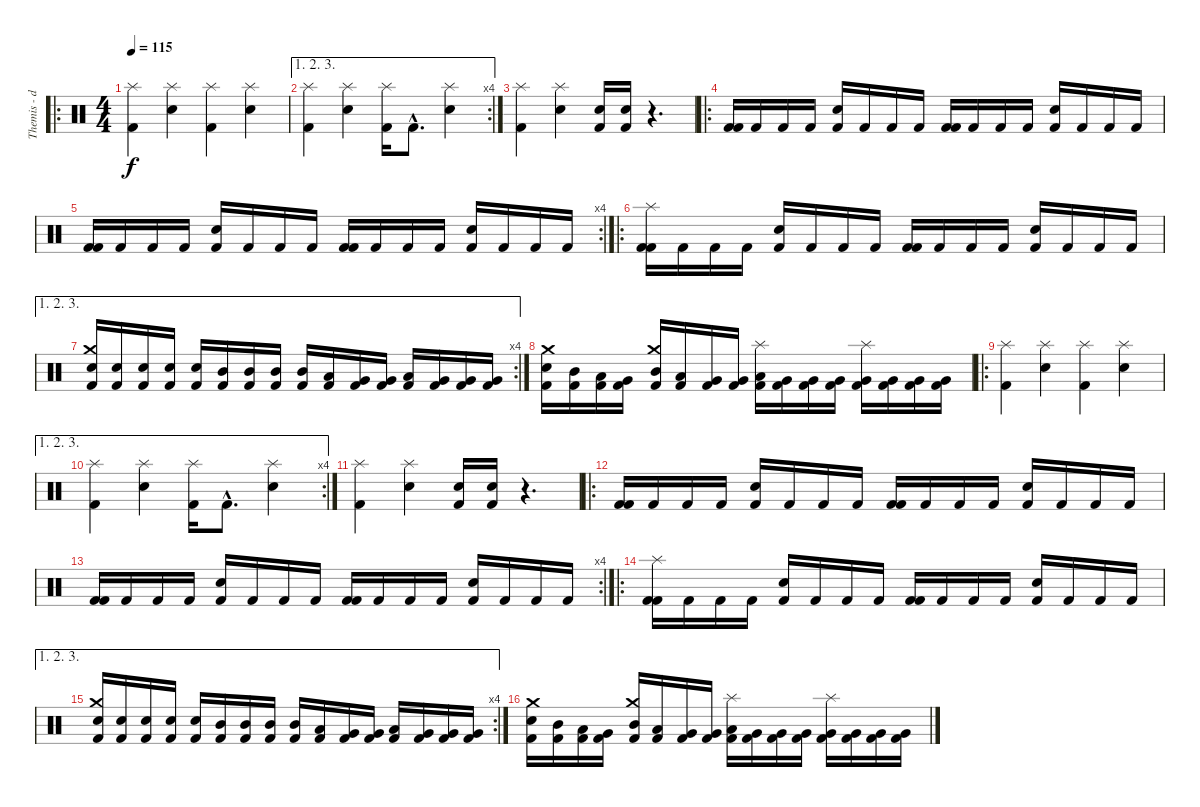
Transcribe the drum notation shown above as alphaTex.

\track ("Themis - drms" "Themis - d") {instrument percussion}
\staff {score}
\articulation defaults
\ro
\ts (4 4)
\tempo 115
\clef neutral
\ks c
("Splash (hit)" "Kick (hit) 2").4{dy f} ("Splash (hit)" "Electric Snare (hit)").4 ("Splash (hit)" "Kick (hit) 2").4 ("Splash (hit)" "Electric Snare (hit)").4 |
\ae (1 2 3)
\rc 4
("Splash (hit)" "Kick (hit) 2").4 ("Splash (hit)" "Electric Snare (hit)").4 ("Splash (hit)" "Kick (hit) 2").16 "Kick (hit) 2"{hac}.8{d} ("Splash (hit)" "Electric Snare (hit)").4 |
("Splash (hit)" "Kick (hit) 2").4 ("Splash (hit)" "Electric Snare (hit)").4 ("Electric Snare (hit)" "Kick (hit) 2").16 ("Electric Snare (hit)" "Kick (hit) 2").16 r.4{d} |
\ro
("Kick (hit) 2" "Kick (hit) 2").16 "Kick (hit) 2".16 "Kick (hit) 2".16 "Kick (hit) 2".16 ("Electric Snare (hit)" "Kick (hit) 2").16 "Kick (hit) 2".16 "Kick (hit) 2".16 "Kick (hit) 2".16 ("Kick (hit) 2" "Kick (hit) 2").16 "Kick (hit) 2".16 "Kick (hit) 2".16 "Kick (hit) 2".16 ("Electric Snare (hit)" "Kick (hit) 2").16 "Kick (hit) 2".16 "Kick (hit) 2".16 "Kick (hit) 2".16 |
\rc 4
("Kick (hit) 2" "Kick (hit) 2").16 "Kick (hit) 2".16 "Kick (hit) 2".16 "Kick (hit) 2".16 ("Electric Snare (hit)" "Kick (hit) 2").16 "Kick (hit) 2".16 "Kick (hit) 2".16 "Kick (hit) 2".16 ("Kick (hit) 2" "Kick (hit) 2").16 "Kick (hit) 2".16 "Kick (hit) 2".16 "Kick (hit) 2".16 ("Electric Snare (hit)" "Kick (hit) 2").16 "Kick (hit) 2".16 "Kick (hit) 2".16 "Kick (hit) 2".16 |
\ro
("Splash (hit)" "Kick (hit) 2" "Kick (hit) 2").16 "Kick (hit) 2".16 "Kick (hit) 2".16 "Kick (hit) 2".16 ("Electric Snare (hit)" "Kick (hit) 2").16 "Kick (hit) 2".16 "Kick (hit) 2".16 "Kick (hit) 2".16 ("Kick (hit) 2" "Kick (hit) 2").16 "Kick (hit) 2".16 "Kick (hit) 2".16 "Kick (hit) 2".16 ("Electric Snare (hit)" "Kick (hit) 2").16 "Kick (hit) 2".16 "Kick (hit) 2".16 "Kick (hit) 2".16 |
\ae (1 2 3)
\rc 4
("Crash medium (hit)" "Snare (hit) 2" "Kick (hit) 2").16 ("Snare (hit) 2" "Kick (hit) 2").16 ("Electric Snare (hit)" "Kick (hit) 2").16 ("Electric Snare (hit)" "Kick (hit) 2").16 ("Electric Snare (hit)" "Kick (hit) 2").16 ("Mid Tom (hit)" "Kick (hit) 2").16 ("Mid Tom (hit)" "Kick (hit) 2").16 ("Mid Tom (hit)" "Kick (hit) 2").16 ("Mid Tom (hit)" "Kick (hit) 2").16 ("Low Tom (hit)" "Kick (hit) 2").16 ("Very Low Tom (hit)" "Kick (hit) 2").16 ("Very Low Tom (hit)" "Kick (hit) 2").16 ("Low Tom (hit)" "Kick (hit) 2").16 ("Very Low Tom (hit)" "Kick (hit) 2").16 ("Very Low Tom (hit)" "Kick (hit) 2").16 ("Very Low Tom (hit)" "Kick (hit) 2").16 |
("Crash medium (hit)" "Electric Snare (hit)" "Kick (hit) 2").16 ("Mid Tom (hit)" "Kick (hit) 2").16 ("Low Tom (hit)" "Kick (hit) 2").16 ("Very Low Tom (hit)" "Kick (hit) 2").16 ("Crash medium (hit)" "Mid Tom (hit)" "Kick (hit) 2").16 ("Low Tom (hit)" "Kick (hit) 2").16 ("Very Low Tom (hit)" "Kick (hit) 2").16 ("Very Low Tom (hit)" "Kick (hit) 2").16 ("Splash (hit)" "Low Tom (hit)" "Kick (hit) 2").16 ("Very Low Tom (hit)" "Kick (hit) 2").16 ("Very Low Tom (hit)" "Kick (hit) 2").16 ("Very Low Tom (hit)" "Kick (hit) 2").16 ("Splash (hit)" "Very Low Tom (hit)" "Kick (hit) 2").16 ("Very Low Tom (hit)" "Kick (hit) 2").16 ("Very Low Tom (hit)" "Kick (hit) 2").16 ("Very Low Tom (hit)" "Kick (hit) 2").16 |
\ro
("Splash (hit)" "Kick (hit) 2").4 ("Splash (hit)" "Electric Snare (hit)").4 ("Splash (hit)" "Kick (hit) 2").4 ("Splash (hit)" "Electric Snare (hit)").4 |
\ae (1 2 3)
\rc 4
("Splash (hit)" "Kick (hit) 2").4 ("Splash (hit)" "Electric Snare (hit)").4 ("Splash (hit)" "Kick (hit) 2").16 "Kick (hit) 2"{hac}.8{d} ("Splash (hit)" "Electric Snare (hit)").4 |
("Splash (hit)" "Kick (hit) 2").4 ("Splash (hit)" "Electric Snare (hit)").4 ("Electric Snare (hit)" "Kick (hit) 2").16 ("Electric Snare (hit)" "Kick (hit) 2").16 r.4{d} |
\ro
("Kick (hit) 2" "Kick (hit) 2").16 "Kick (hit) 2".16 "Kick (hit) 2".16 "Kick (hit) 2".16 ("Electric Snare (hit)" "Kick (hit) 2").16 "Kick (hit) 2".16 "Kick (hit) 2".16 "Kick (hit) 2".16 ("Kick (hit) 2" "Kick (hit) 2").16 "Kick (hit) 2".16 "Kick (hit) 2".16 "Kick (hit) 2".16 ("Electric Snare (hit)" "Kick (hit) 2").16 "Kick (hit) 2".16 "Kick (hit) 2".16 "Kick (hit) 2".16 |
\rc 4
("Kick (hit) 2" "Kick (hit) 2").16 "Kick (hit) 2".16 "Kick (hit) 2".16 "Kick (hit) 2".16 ("Electric Snare (hit)" "Kick (hit) 2").16 "Kick (hit) 2".16 "Kick (hit) 2".16 "Kick (hit) 2".16 ("Kick (hit) 2" "Kick (hit) 2").16 "Kick (hit) 2".16 "Kick (hit) 2".16 "Kick (hit) 2".16 ("Electric Snare (hit)" "Kick (hit) 2").16 "Kick (hit) 2".16 "Kick (hit) 2".16 "Kick (hit) 2".16 |
\ro
("Splash (hit)" "Kick (hit) 2" "Kick (hit) 2").16 "Kick (hit) 2".16 "Kick (hit) 2".16 "Kick (hit) 2".16 ("Electric Snare (hit)" "Kick (hit) 2").16 "Kick (hit) 2".16 "Kick (hit) 2".16 "Kick (hit) 2".16 ("Kick (hit) 2" "Kick (hit) 2").16 "Kick (hit) 2".16 "Kick (hit) 2".16 "Kick (hit) 2".16 ("Electric Snare (hit)" "Kick (hit) 2").16 "Kick (hit) 2".16 "Kick (hit) 2".16 "Kick (hit) 2".16 |
\ae (1 2 3)
\rc 4
("Crash medium (hit)" "Snare (hit) 2" "Kick (hit) 2").16 ("Snare (hit) 2" "Kick (hit) 2").16 ("Electric Snare (hit)" "Kick (hit) 2").16 ("Electric Snare (hit)" "Kick (hit) 2").16 ("Electric Snare (hit)" "Kick (hit) 2").16 ("Mid Tom (hit)" "Kick (hit) 2").16 ("Mid Tom (hit)" "Kick (hit) 2").16 ("Mid Tom (hit)" "Kick (hit) 2").16 ("Mid Tom (hit)" "Kick (hit) 2").16 ("Low Tom (hit)" "Kick (hit) 2").16 ("Very Low Tom (hit)" "Kick (hit) 2").16 ("Very Low Tom (hit)" "Kick (hit) 2").16 ("Low Tom (hit)" "Kick (hit) 2").16 ("Very Low Tom (hit)" "Kick (hit) 2").16 ("Very Low Tom (hit)" "Kick (hit) 2").16 ("Very Low Tom (hit)" "Kick (hit) 2").16 |
("Crash medium (hit)" "Electric Snare (hit)" "Kick (hit) 2").16 ("Mid Tom (hit)" "Kick (hit) 2").16 ("Low Tom (hit)" "Kick (hit) 2").16 ("Very Low Tom (hit)" "Kick (hit) 2").16 ("Crash medium (hit)" "Mid Tom (hit)" "Kick (hit) 2").16 ("Low Tom (hit)" "Kick (hit) 2").16 ("Very Low Tom (hit)" "Kick (hit) 2").16 ("Very Low Tom (hit)" "Kick (hit) 2").16 ("Splash (hit)" "Low Tom (hit)" "Kick (hit) 2").16 ("Very Low Tom (hit)" "Kick (hit) 2").16 ("Very Low Tom (hit)" "Kick (hit) 2").16 ("Very Low Tom (hit)" "Kick (hit) 2").16 ("Splash (hit)" "Very Low Tom (hit)" "Kick (hit) 2").16 ("Very Low Tom (hit)" "Kick (hit) 2").16 ("Very Low Tom (hit)" "Kick (hit) 2").16 ("Very Low Tom (hit)" "Kick (hit) 2").16
